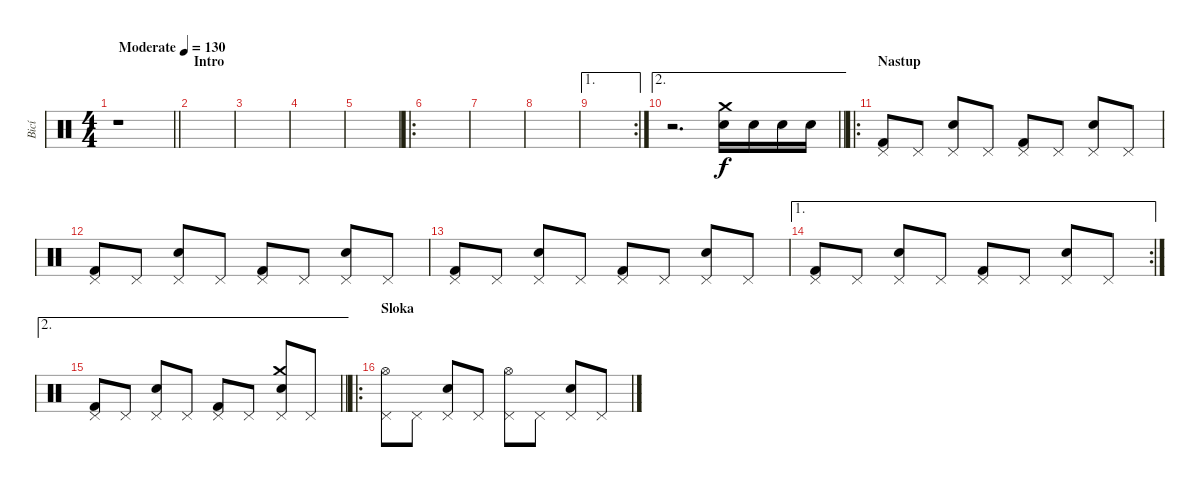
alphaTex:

\track ("Bicí" "Bicí") {instrument percussion}
\staff {score}
\articulation defaults
\ts (4 4)
\tempo (130 "Moderate")
\clef neutral
\barLineRight lightlight
\ks c
r.1{dy f} |
\section ("" "Intro")
|
|
|
|
\ro
|
|
|
\ae 1
\rc 2
|
\ae 2
\barLineRight lightlight
r.2{d} ("Snare (hit) 2" "Crash medium (hit)").16 "Snare (hit) 2".16 "Snare (hit) 2".16 "Snare (hit) 2".16 |
\ro
\section ("" "Nastup")
("Kick (hit) 2" "Pedal Hi-Hat (hit)").8 "Pedal Hi-Hat (hit)".8 ("Snare (hit) 2" "Pedal Hi-Hat (hit)").8 "Pedal Hi-Hat (hit)".8 ("Kick (hit) 2" "Pedal Hi-Hat (hit)").8 "Pedal Hi-Hat (hit)".8 ("Snare (hit) 2" "Pedal Hi-Hat (hit)").8 "Pedal Hi-Hat (hit)".8 |
("Kick (hit) 2" "Pedal Hi-Hat (hit)").8 "Pedal Hi-Hat (hit)".8 ("Snare (hit) 2" "Pedal Hi-Hat (hit)").8 "Pedal Hi-Hat (hit)".8 ("Kick (hit) 2" "Pedal Hi-Hat (hit)").8 "Pedal Hi-Hat (hit)".8 ("Snare (hit) 2" "Pedal Hi-Hat (hit)").8 "Pedal Hi-Hat (hit)".8 |
("Kick (hit) 2" "Pedal Hi-Hat (hit)").8 "Pedal Hi-Hat (hit)".8 ("Snare (hit) 2" "Pedal Hi-Hat (hit)").8 "Pedal Hi-Hat (hit)".8 ("Kick (hit) 2" "Pedal Hi-Hat (hit)").8 "Pedal Hi-Hat (hit)".8 ("Snare (hit) 2" "Pedal Hi-Hat (hit)").8 "Pedal Hi-Hat (hit)".8 |
\ae 1
\rc 2
("Kick (hit) 2" "Pedal Hi-Hat (hit)").8 "Pedal Hi-Hat (hit)".8 ("Snare (hit) 2" "Pedal Hi-Hat (hit)").8 "Pedal Hi-Hat (hit)".8 ("Kick (hit) 2" "Pedal Hi-Hat (hit)").8 "Pedal Hi-Hat (hit)".8 ("Snare (hit) 2" "Pedal Hi-Hat (hit)").8 "Pedal Hi-Hat (hit)".8 |
\ae 2
\barLineRight lightlight
("Kick (hit) 2" "Pedal Hi-Hat (hit)").8 "Pedal Hi-Hat (hit)".8 ("Snare (hit) 2" "Pedal Hi-Hat (hit)").8 "Pedal Hi-Hat (hit)".8 ("Kick (hit) 2" "Pedal Hi-Hat (hit)").8 "Pedal Hi-Hat (hit)".8 ("Snare (hit) 2" "Crash medium (hit)" "Pedal Hi-Hat (hit)").8 "Pedal Hi-Hat (hit)".8 |
\ro
\section ("" "Sloka")
("Hi-Hat (open)" "Pedal Hi-Hat (hit)").8 "Pedal Hi-Hat (hit)".8 ("Electric Snare (hit)" "Pedal Hi-Hat (hit)").8 "Pedal Hi-Hat (hit)".8 ("Hi-Hat (open)" "Pedal Hi-Hat (hit)").8 "Pedal Hi-Hat (hit)".8 ("Electric Snare (hit)" "Pedal Hi-Hat (hit)").8 "Pedal Hi-Hat (hit)".8
